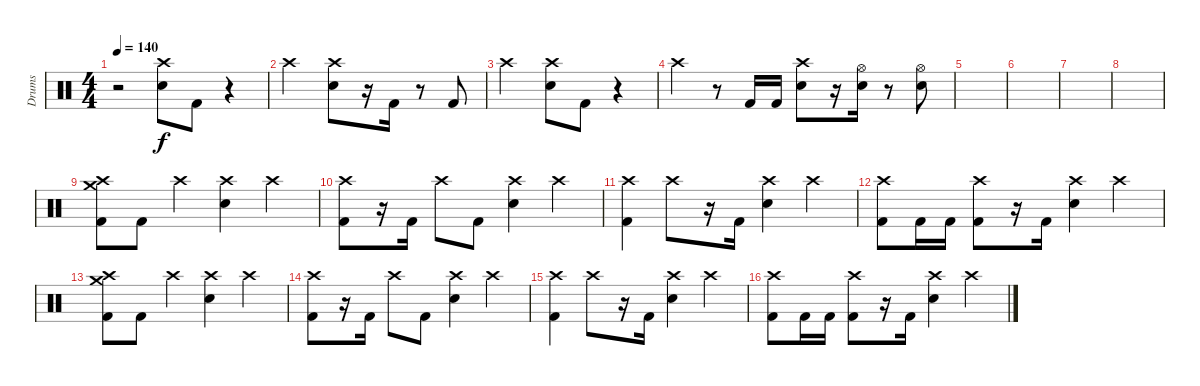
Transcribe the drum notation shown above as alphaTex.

\track ("Drums" "Drums") {instrument percussion}
\staff {score}
\articulation defaults
\ts (4 4)
\tempo 140
\clef neutral
\ks c
r.2{dy f} ("Crash high (hit)" "Electric Snare (hit)").8 "Kick (hit) 2".8 r.4 |
"Crash high (hit)".2 ("Crash high (hit)" "Electric Snare (hit)").8 r.16 "Kick (hit) 2".16 r.8 "Kick (hit) 2".8 |
"Crash high (hit)".2 ("Crash high (hit)" "Electric Snare (hit)").8 "Kick (hit) 2".8 r.4 |
"Crash high (hit)".4 r.8 "Kick (hit) 2".16 "Kick (hit) 2".16 ("Crash high (hit)" "Electric Snare (hit)").8 r.16 ("Hi-Hat (open)" "Electric Snare (hit)").16 r.8 ("Hi-Hat (open)" "Electric Snare (hit)").8 |
|
|
|
|
("Crash medium (hit)" "Crash high (hit)" "Kick (hit) 2").8 "Kick (hit) 2".8 "Crash high (hit)".4 ("Crash high (hit)" "Electric Snare (hit)").4 "Crash high (hit)".4 |
("Crash high (hit)" "Kick (hit) 2").8 r.16 "Kick (hit) 2".16 "Crash high (hit)".8 "Kick (hit) 2".8 ("Crash high (hit)" "Electric Snare (hit)").4 "Crash high (hit)".4 |
("Crash high (hit)" "Kick (hit) 2").4 "Crash high (hit)".8 r.16 "Kick (hit) 2".16 ("Crash high (hit)" "Electric Snare (hit)").4 "Crash high (hit)".4 |
("Crash high (hit)" "Kick (hit) 2").8 "Kick (hit) 2".16 "Kick (hit) 2".16 ("Crash high (hit)" "Kick (hit) 2").8 r.16 "Kick (hit) 2".16 ("Crash high (hit)" "Electric Snare (hit)").4 "Crash high (hit)".4 |
("Crash medium (hit)" "Crash high (hit)" "Kick (hit) 2").8 "Kick (hit) 2".8 "Crash high (hit)".4 ("Crash high (hit)" "Electric Snare (hit)").4 "Crash high (hit)".4 |
("Crash high (hit)" "Kick (hit) 2").8 r.16 "Kick (hit) 2".16 "Crash high (hit)".8 "Kick (hit) 2".8 ("Crash high (hit)" "Electric Snare (hit)").4 "Crash high (hit)".4 |
("Crash high (hit)" "Kick (hit) 2").4 "Crash high (hit)".8 r.16 "Kick (hit) 2".16 ("Crash high (hit)" "Electric Snare (hit)").4 "Crash high (hit)".4 |
("Crash high (hit)" "Kick (hit) 2").8 "Kick (hit) 2".16 "Kick (hit) 2".16 ("Crash high (hit)" "Kick (hit) 2").8 r.16 "Kick (hit) 2".16 ("Crash high (hit)" "Electric Snare (hit)").4 "Crash high (hit)".4
